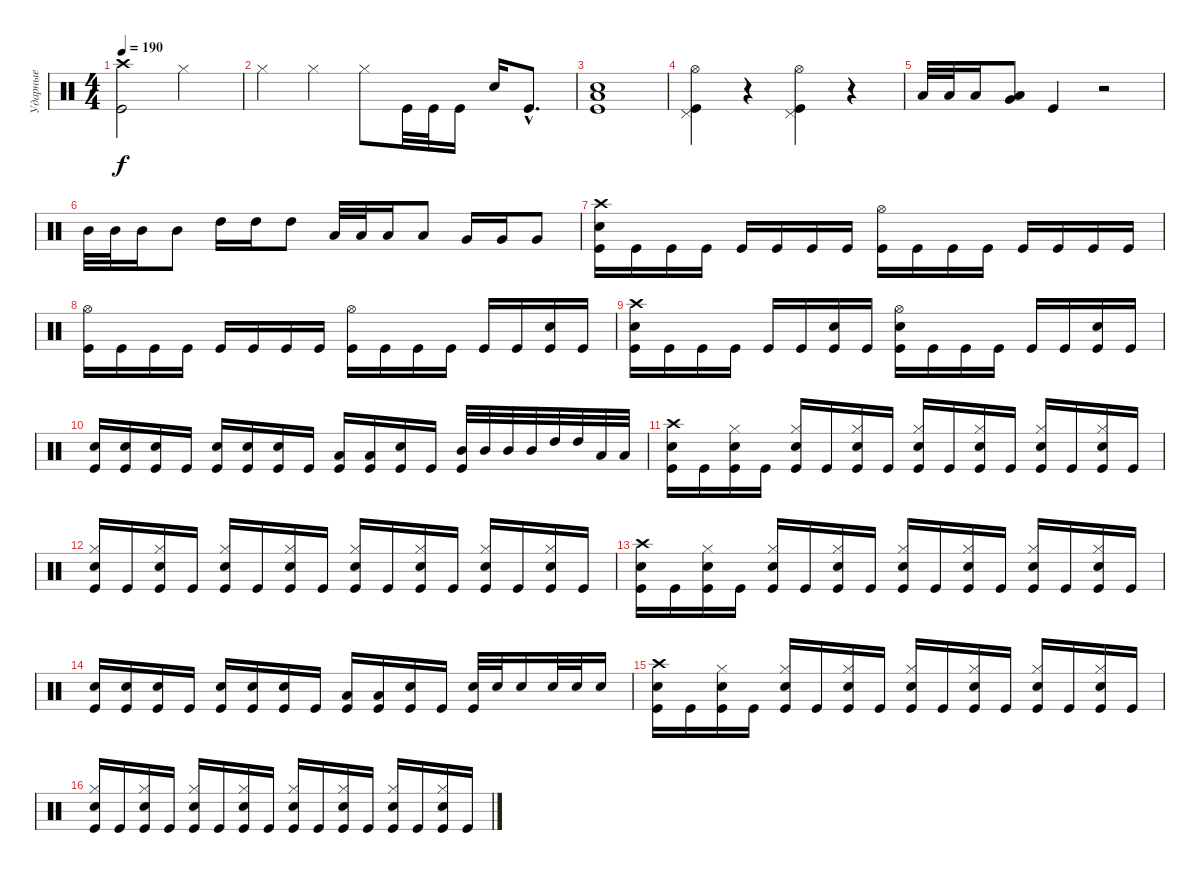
\track ("Ударные" "Ударные") {instrument percussion}
\staff {score}
\articulation defaults
\ts (4 4)
\tempo 190
\clef neutral
\ks c
("Crash high (hit)" "Kick (hit)").2{dy f} "Hi-Hat (closed)".2 |
"Hi-Hat (closed)".4 "Hi-Hat (closed)".4 "Hi-Hat (closed)".8 "Kick (hit)".32 "Kick (hit)".32 "Kick (hit)".16 "Electric Snare (hit)".16 "Kick (hit)"{hac}.8{d} |
("Low Tom (hit)" "Electric Snare (hit)" "Kick (hit)").1 |
("Pedal Hi-Hat (hit)" "Hi-Hat (open)" "Kick (hit)").4 r.4 ("Pedal Hi-Hat (hit)" "Hi-Hat (open)" "Kick (hit)").4 r.4 |
"Low Tom (hit)".32 "Low Tom (hit)".32 "Low Tom (hit)".16 ("Very Low Tom (hit)" "Low Tom (hit)").8 "Kick (hit)".4 r.2 |
"Mid Tom (hit)".32 "Mid Tom (hit)".32 "Mid Tom (hit)".16 "Mid Tom (hit)".8 "High Tom (hit)".16 "High Tom (hit)".16 "High Tom (hit)".8 "Low Tom (hit)".32 "Low Tom (hit)".32 "Low Tom (hit)".16 "Low Tom (hit)".8 "Very Low Tom (hit)".16 "Very Low Tom (hit)".16 "Very Low Tom (hit)".8 |
("Crash high (hit)" "Electric Snare (hit)" "Kick (hit)").16 "Kick (hit)".16 "Kick (hit)".16 "Kick (hit)".16 "Kick (hit)".16 "Kick (hit)".16 "Kick (hit)".16 "Kick (hit)".16 ("Hi-Hat (open)" "Kick (hit)").16 "Kick (hit)".16 "Kick (hit)".16 "Kick (hit)".16 "Kick (hit)".16 "Kick (hit)".16 "Kick (hit)".16 "Kick (hit)".16 |
("Hi-Hat (open)" "Kick (hit)").16 "Kick (hit)".16 "Kick (hit)".16 "Kick (hit)".16 "Kick (hit)".16 "Kick (hit)".16 "Kick (hit)".16 "Kick (hit)".16 ("Hi-Hat (open)" "Kick (hit)").16 "Kick (hit)".16 "Kick (hit)".16 "Kick (hit)".16 "Kick (hit)".16 "Kick (hit)".16 ("Electric Snare (hit)" "Kick (hit)").16 "Kick (hit)".16 |
("Crash high (hit)" "Electric Snare (hit)" "Kick (hit)").16 "Kick (hit)".16 "Kick (hit)".16 "Kick (hit)".16 "Kick (hit)".16 "Kick (hit)".16 ("Electric Snare (hit)" "Kick (hit)").16 "Kick (hit)".16 ("Hi-Hat (open)" "Electric Snare (hit)" "Kick (hit)").16 "Kick (hit)".16 "Kick (hit)".16 "Kick (hit)".16 "Kick (hit)".16 "Kick (hit)".16 ("Electric Snare (hit)" "Kick (hit)").16 "Kick (hit)".16 |
("Electric Snare (hit)" "Kick (hit)").16 ("Electric Snare (hit)" "Kick (hit)").16 ("Electric Snare (hit)" "Kick (hit)").16 "Kick (hit)".16 ("Electric Snare (hit)" "Kick (hit)").16 ("Electric Snare (hit)" "Kick (hit)").16 ("Electric Snare (hit)" "Kick (hit)").16 "Kick (hit)".16 ("Low Tom (hit)" "Kick (hit)").16 ("Low Tom (hit)" "Kick (hit)").16 ("Electric Snare (hit)" "Kick (hit)").16 "Kick (hit)".16 ("Mid Tom (hit)" "Kick (hit)").32 "Mid Tom (hit)".32 "Mid Tom (hit)".32 "Mid Tom (hit)".32 "High Tom (hit)".32 "High Tom (hit)".32 "Low Tom (hit)".32 "Low Tom (hit)".32 |
("Crash high (hit)" "Electric Snare (hit)" "Kick (hit)").16 "Kick (hit)".16 ("Hi-Hat (closed)" "Electric Snare (hit)" "Kick (hit)").16 "Kick (hit)".16 ("Hi-Hat (closed)" "Electric Snare (hit)" "Kick (hit)").16 "Kick (hit)".16 ("Hi-Hat (closed)" "Electric Snare (hit)" "Kick (hit)").16 "Kick (hit)".16 ("Hi-Hat (closed)" "Electric Snare (hit)" "Kick (hit)").16 "Kick (hit)".16 ("Hi-Hat (closed)" "Electric Snare (hit)" "Kick (hit)").16 "Kick (hit)".16 ("Hi-Hat (closed)" "Electric Snare (hit)" "Kick (hit)").16 "Kick (hit)".16 ("Hi-Hat (closed)" "Electric Snare (hit)" "Kick (hit)").16 "Kick (hit)".16 |
("Hi-Hat (closed)" "Electric Snare (hit)" "Kick (hit)").16 "Kick (hit)".16 ("Hi-Hat (closed)" "Electric Snare (hit)" "Kick (hit)").16 "Kick (hit)".16 ("Hi-Hat (closed)" "Electric Snare (hit)" "Kick (hit)").16 "Kick (hit)".16 ("Hi-Hat (closed)" "Electric Snare (hit)" "Kick (hit)").16 "Kick (hit)".16 ("Hi-Hat (closed)" "Electric Snare (hit)" "Kick (hit)").16 "Kick (hit)".16 ("Hi-Hat (closed)" "Electric Snare (hit)" "Kick (hit)").16 "Kick (hit)".16 ("Hi-Hat (closed)" "Electric Snare (hit)" "Kick (hit)").16 "Kick (hit)".16 ("Hi-Hat (closed)" "Electric Snare (hit)" "Kick (hit)").16 "Kick (hit)".16 |
("Crash high (hit)" "Electric Snare (hit)" "Kick (hit)").16 "Kick (hit)".16 ("Hi-Hat (closed)" "Electric Snare (hit)" "Kick (hit)").16 "Kick (hit)".16 ("Hi-Hat (closed)" "Electric Snare (hit)" "Kick (hit)").16 "Kick (hit)".16 ("Hi-Hat (closed)" "Electric Snare (hit)" "Kick (hit)").16 "Kick (hit)".16 ("Hi-Hat (closed)" "Electric Snare (hit)" "Kick (hit)").16 "Kick (hit)".16 ("Hi-Hat (closed)" "Electric Snare (hit)" "Kick (hit)").16 "Kick (hit)".16 ("Hi-Hat (closed)" "Electric Snare (hit)" "Kick (hit)").16 "Kick (hit)".16 ("Hi-Hat (closed)" "Electric Snare (hit)" "Kick (hit)").16 "Kick (hit)".16 |
("Electric Snare (hit)" "Kick (hit)").16 ("Electric Snare (hit)" "Kick (hit)").16 ("Electric Snare (hit)" "Kick (hit)").16 "Kick (hit)".16 ("Electric Snare (hit)" "Kick (hit)").16 ("Electric Snare (hit)" "Kick (hit)").16 ("Electric Snare (hit)" "Kick (hit)").16 "Kick (hit)".16 ("Low Tom (hit)" "Kick (hit)").16 ("Low Tom (hit)" "Kick (hit)").16 ("Electric Snare (hit)" "Kick (hit)").16 "Kick (hit)".16 ("Electric Snare (hit)" "Kick (hit)").32 "Electric Snare (hit)".32 "Electric Snare (hit)".16 "Electric Snare (hit)".32 "Electric Snare (hit)".32 "Electric Snare (hit)".16 |
("Crash high (hit)" "Electric Snare (hit)" "Kick (hit)").16 "Kick (hit)".16 ("Hi-Hat (closed)" "Electric Snare (hit)" "Kick (hit)").16 "Kick (hit)".16 ("Hi-Hat (closed)" "Electric Snare (hit)" "Kick (hit)").16 "Kick (hit)".16 ("Hi-Hat (closed)" "Electric Snare (hit)" "Kick (hit)").16 "Kick (hit)".16 ("Hi-Hat (closed)" "Electric Snare (hit)" "Kick (hit)").16 "Kick (hit)".16 ("Hi-Hat (closed)" "Electric Snare (hit)" "Kick (hit)").16 "Kick (hit)".16 ("Hi-Hat (closed)" "Electric Snare (hit)" "Kick (hit)").16 "Kick (hit)".16 ("Hi-Hat (closed)" "Electric Snare (hit)" "Kick (hit)").16 "Kick (hit)".16 |
("Hi-Hat (closed)" "Electric Snare (hit)" "Kick (hit)").16 "Kick (hit)".16 ("Hi-Hat (closed)" "Electric Snare (hit)" "Kick (hit)").16 "Kick (hit)".16 ("Hi-Hat (closed)" "Electric Snare (hit)" "Kick (hit)").16 "Kick (hit)".16 ("Hi-Hat (closed)" "Electric Snare (hit)" "Kick (hit)").16 "Kick (hit)".16 ("Hi-Hat (closed)" "Electric Snare (hit)" "Kick (hit)").16 "Kick (hit)".16 ("Hi-Hat (closed)" "Electric Snare (hit)" "Kick (hit)").16 "Kick (hit)".16 ("Hi-Hat (closed)" "Electric Snare (hit)" "Kick (hit)").16 "Kick (hit)".16 ("Hi-Hat (closed)" "Electric Snare (hit)" "Kick (hit)").16 "Kick (hit)".16
